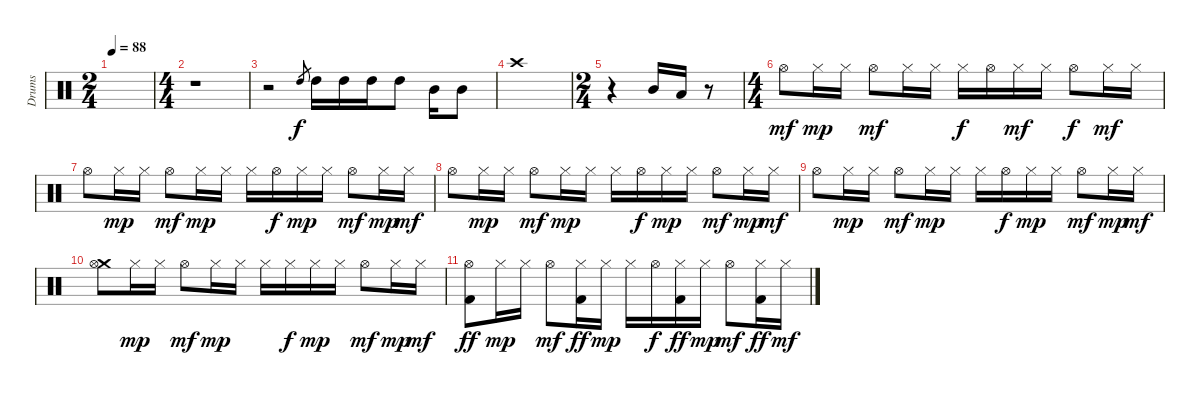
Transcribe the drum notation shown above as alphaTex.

\track ("Drums" "Drums") {instrument percussion}
\staff {score}
\articulation defaults
\ts (2 4)
\tempo 88
\clef neutral
\ks c
|
\ts (4 4)
r.1 |
r.2 "High Tom (hit)".8{gr} "High Tom (hit)".16 "High Tom (hit)".16 "High Tom (hit)".16 "High Tom (hit)".8 "Mid Tom (hit)".16 "Mid Tom (hit)".8 |
"Crash high (hit)".1 |
\ts (2 4)
r.4 "Mid Tom (hit)".16 "Low Tom (hit)".16 r.8 |
\ts (4 4)
"Hi-Hat (open)".8{dy mf} "Hi-Hat (closed)".16{dy mp} "Hi-Hat (closed)".16 "Hi-Hat (open)".8{dy mf} "Hi-Hat (closed)".16 "Hi-Hat (closed)".16 "Hi-Hat (closed)".16{dy f} "Hi-Hat (open)".16 "Hi-Hat (closed)".16{dy mf} "Hi-Hat (closed)".16 "Hi-Hat (open)".8{dy f} "Hi-Hat (closed)".16{dy mf} "Hi-Hat (closed)".16 |
"Hi-Hat (open)".8 "Hi-Hat (closed)".16{dy mp} "Hi-Hat (closed)".16 "Hi-Hat (open)".8{dy mf} "Hi-Hat (closed)".16{dy mp} "Hi-Hat (closed)".16 "Hi-Hat (closed)".16 "Hi-Hat (open)".16{dy f} "Hi-Hat (closed)".16{dy mp} "Hi-Hat (closed)".16 "Hi-Hat (open)".8{dy mf} "Hi-Hat (closed)".16{dy mp} "Hi-Hat (closed)".16{dy mf} |
"Hi-Hat (open)".8 "Hi-Hat (closed)".16{dy mp} "Hi-Hat (closed)".16 "Hi-Hat (open)".8{dy mf} "Hi-Hat (closed)".16{dy mp} "Hi-Hat (closed)".16 "Hi-Hat (closed)".16 "Hi-Hat (open)".16{dy f} "Hi-Hat (closed)".16{dy mp} "Hi-Hat (closed)".16 "Hi-Hat (open)".8{dy mf} "Hi-Hat (closed)".16{dy mp} "Hi-Hat (closed)".16{dy mf} |
"Hi-Hat (open)".8 "Hi-Hat (closed)".16{dy mp} "Hi-Hat (closed)".16 "Hi-Hat (open)".8{dy mf} "Hi-Hat (closed)".16{dy mp} "Hi-Hat (closed)".16 "Hi-Hat (closed)".16 "Hi-Hat (open)".16{dy f} "Hi-Hat (closed)".16{dy mp} "Hi-Hat (closed)".16 "Hi-Hat (open)".8{dy mf} "Hi-Hat (closed)".16{dy mp} "Hi-Hat (closed)".16{dy mf} |
("Crash medium (hit)" "Hi-Hat (open)").8 "Hi-Hat (closed)".16{dy mp} "Hi-Hat (closed)".16 "Hi-Hat (open)".8{dy mf} "Hi-Hat (closed)".16{dy mp} "Hi-Hat (closed)".16 "Hi-Hat (closed)".16 "Hi-Hat (closed)".16{dy f} "Hi-Hat (closed)".16{dy mp} "Hi-Hat (closed)".16 "Hi-Hat (open)".8{dy mf} "Hi-Hat (closed)".16{dy mp} "Hi-Hat (closed)".16{dy mf} |
("Hi-Hat (open)" "Kick (hit) 2").8{dy ff} "Hi-Hat (closed)".16{dy mp} "Hi-Hat (closed)".16 "Hi-Hat (open)".8{dy mf} ("Hi-Hat (closed)" "Kick (hit) 2").16{dy ff} "Hi-Hat (closed)".16{dy mp} "Hi-Hat (closed)".16 "Hi-Hat (open)".16{dy f} ("Hi-Hat (closed)" "Kick (hit) 2").16{dy ff} "Hi-Hat (closed)".16{dy mp} "Hi-Hat (open)".8{dy mf} ("Hi-Hat (closed)" "Kick (hit) 2").16{dy ff} "Hi-Hat (closed)".16{dy mf}
